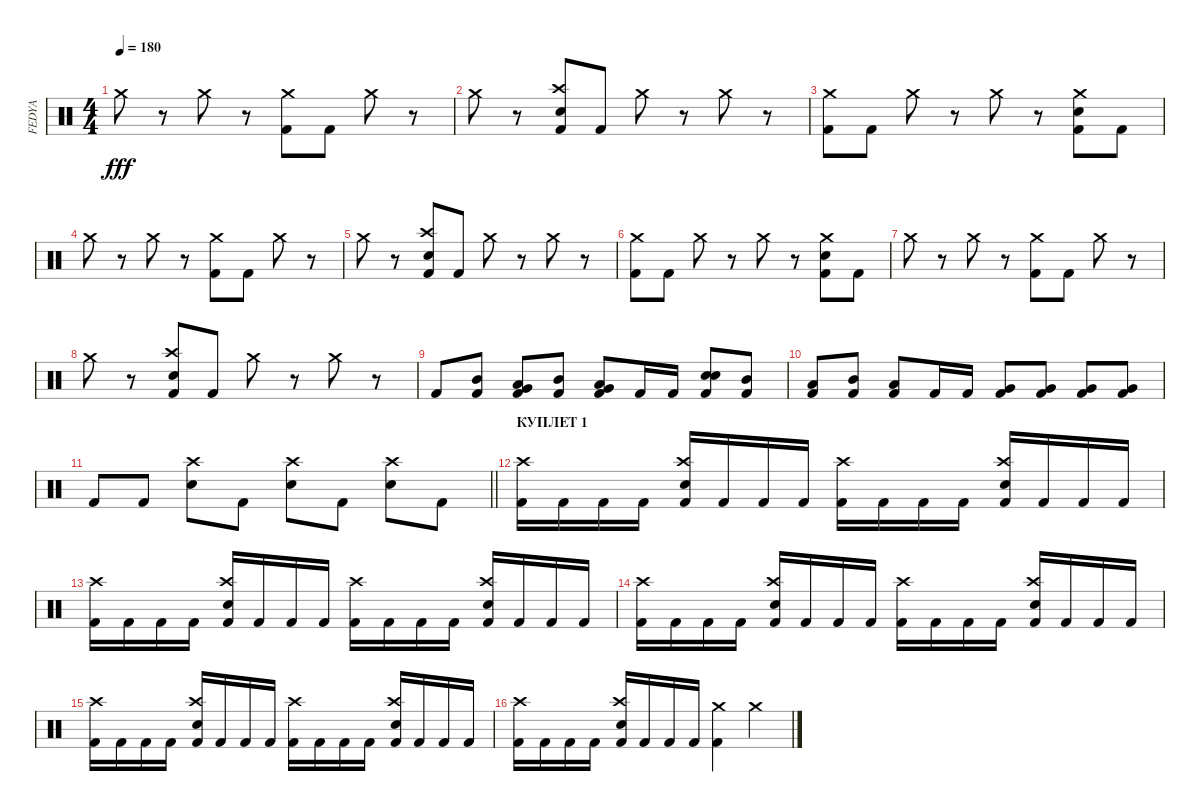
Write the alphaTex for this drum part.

\track ("FEDYA" "FEDYA") {instrument percussion}
\staff {score}
\articulation defaults
\ts (4 4)
\tempo 180
\clef neutral
\ks c "Crash medium (hit)".8{dy fff}
r.8 "Crash medium (hit)".8 r.8 ("Crash medium (hit)" "Kick (hit) 2").8 "Kick (hit) 2".8 "Crash medium (hit)".8 r.8 |
"Crash medium (hit)".8 r.8 ("Crash high (hit)" "Snare (hit) 2" "Kick (hit) 2").8 "Kick (hit) 2".8 "Crash medium (hit)".8 r.8 "Crash medium (hit)".8 r.8 |
("Crash medium (hit)" "Kick (hit) 2").8 "Kick (hit) 2".8 "Crash medium (hit)".8 r.8 "Crash medium (hit)".8 r.8 ("Crash medium (hit)" "Snare (hit) 2" "Kick (hit) 2").8 "Kick (hit) 2".8 |
"Crash medium (hit)".8 r.8 "Crash medium (hit)".8 r.8 ("Crash medium (hit)" "Kick (hit) 2").8 "Kick (hit) 2".8 "Crash medium (hit)".8 r.8 |
"Crash medium (hit)".8 r.8 ("Crash high (hit)" "Snare (hit) 2" "Kick (hit) 2").8 "Kick (hit) 2".8 "Crash medium (hit)".8 r.8 "Crash medium (hit)".8 r.8 |
("Crash medium (hit)" "Kick (hit) 2").8 "Kick (hit) 2".8 "Crash medium (hit)".8 r.8 "Crash medium (hit)".8 r.8 ("Crash medium (hit)" "Snare (hit) 2" "Kick (hit) 2").8 "Kick (hit) 2".8 |
"Crash medium (hit)".8 r.8 "Crash medium (hit)".8 r.8 ("Crash medium (hit)" "Kick (hit) 2").8 "Kick (hit) 2".8 "Crash medium (hit)".8 r.8 |
"Crash medium (hit)".8 r.8 ("Crash high (hit)" "Snare (hit) 2" "Kick (hit) 2").8 "Kick (hit) 2".8 "Crash medium (hit)".8 r.8 "Crash medium (hit)".8 r.8 |
"Kick (hit) 2".8 ("Mid Tom (hit)" "Kick (hit) 2").8 ("Very Low Tom (hit)" "Low Tom (hit)" "Kick (hit) 2").8 ("Mid Tom (hit)" "Kick (hit) 2").8 ("Very Low Tom (hit)" "Low Tom (hit)" "Kick (hit) 2").8 "Kick (hit) 2".16 "Kick (hit) 2".16 ("Electric Snare (hit)" "Snare (hit) 2" "Kick (hit) 2").8 ("Mid Tom (hit)" "Kick (hit) 2").8 |
("Low Tom (hit)" "Kick (hit) 2").8 ("Mid Tom (hit)" "Kick (hit) 2").8 ("Low Tom (hit)" "Kick (hit) 2").8 "Kick (hit) 2".16 "Kick (hit) 2".16 ("Very Low Tom (hit)" "Kick (hit) 2").8 ("Very Low Tom (hit)" "Kick (hit) 2").8 ("Very Low Tom (hit)" "Kick (hit) 2").8 ("Very Low Tom (hit)" "Kick (hit) 2").8 |
\barLineRight lightlight "Kick (hit) 2".8 "Kick (hit) 2".8
("Crash high (hit)" "Snare (hit) 2").8 "Kick (hit) 2".8 ("Crash high (hit)" "Snare (hit) 2").8 "Kick (hit) 2".8 ("Crash high (hit)" "Snare (hit) 2").8 "Kick (hit) 2".8 |
\section ("" "КУПЛЕТ 1")
("Crash high (hit)" "Kick (hit) 2").16 "Kick (hit) 2".16 "Kick (hit) 2".16 "Kick (hit) 2".16 ("Crash high (hit)" "Snare (hit) 2" "Kick (hit) 2").16 "Kick (hit) 2".16 "Kick (hit) 2".16 "Kick (hit) 2".16 ("Crash high (hit)" "Kick (hit) 2").16 "Kick (hit) 2".16 "Kick (hit) 2".16 "Kick (hit) 2".16 ("Crash high (hit)" "Snare (hit) 2" "Kick (hit) 2").16 "Kick (hit) 2".16 "Kick (hit) 2".16 "Kick (hit) 2".16 |
("Crash high (hit)" "Kick (hit) 2").16 "Kick (hit) 2".16 "Kick (hit) 2".16 "Kick (hit) 2".16 ("Crash high (hit)" "Snare (hit) 2" "Kick (hit) 2").16 "Kick (hit) 2".16 "Kick (hit) 2".16 "Kick (hit) 2".16 ("Crash high (hit)" "Kick (hit) 2").16 "Kick (hit) 2".16 "Kick (hit) 2".16 "Kick (hit) 2".16 ("Crash high (hit)" "Snare (hit) 2" "Kick (hit) 2").16 "Kick (hit) 2".16 "Kick (hit) 2".16 "Kick (hit) 2".16 |
("Crash high (hit)" "Kick (hit) 2").16 "Kick (hit) 2".16 "Kick (hit) 2".16 "Kick (hit) 2".16 ("Crash high (hit)" "Snare (hit) 2" "Kick (hit) 2").16 "Kick (hit) 2".16 "Kick (hit) 2".16 "Kick (hit) 2".16 ("Crash high (hit)" "Kick (hit) 2").16 "Kick (hit) 2".16 "Kick (hit) 2".16 "Kick (hit) 2".16 ("Crash high (hit)" "Snare (hit) 2" "Kick (hit) 2").16 "Kick (hit) 2".16 "Kick (hit) 2".16 "Kick (hit) 2".16 |
("Crash high (hit)" "Kick (hit) 2").16 "Kick (hit) 2".16 "Kick (hit) 2".16 "Kick (hit) 2".16 ("Crash high (hit)" "Snare (hit) 2" "Kick (hit) 2").16 "Kick (hit) 2".16 "Kick (hit) 2".16 "Kick (hit) 2".16 ("Crash high (hit)" "Kick (hit) 2").16 "Kick (hit) 2".16 "Kick (hit) 2".16 "Kick (hit) 2".16 ("Crash high (hit)" "Snare (hit) 2" "Kick (hit) 2").16 "Kick (hit) 2".16 "Kick (hit) 2".16 "Kick (hit) 2".16 |
("Crash high (hit)" "Kick (hit) 2").16 "Kick (hit) 2".16 "Kick (hit) 2".16 "Kick (hit) 2".16 ("Crash high (hit)" "Snare (hit) 2" "Kick (hit) 2").16 "Kick (hit) 2".16 "Kick (hit) 2".16 "Kick (hit) 2".16 ("Crash medium (hit)" "Kick (hit) 2").4 "Crash medium (hit)".4
